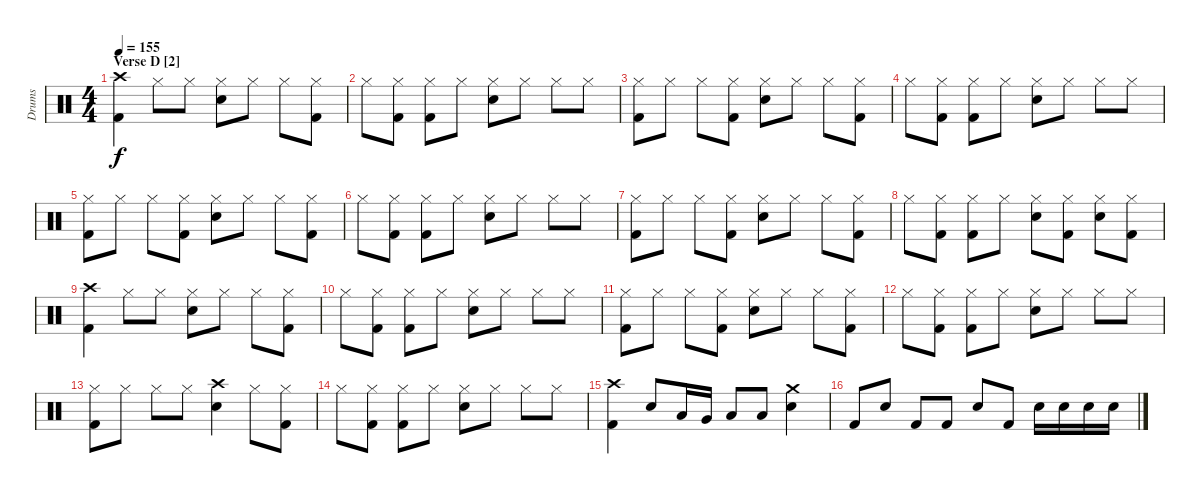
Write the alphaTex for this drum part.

\track ("Drums" "Drums") {instrument percussion}
\staff {score}
\articulation defaults
\ts (4 4)
\section ("" "Verse D [2]")
\tempo 155
\clef neutral
\ks c
("Crash high (hit)" "Kick (hit) 2").4{dy f} "Hi-Hat (closed)".8 "Hi-Hat (closed)".8 ("Hi-Hat (closed)" "Electric Snare (hit)").8 "Hi-Hat (closed)".8 "Hi-Hat (closed)".8 ("Hi-Hat (closed)" "Kick (hit) 2").8 |
"Hi-Hat (closed)".8 ("Hi-Hat (closed)" "Kick (hit) 2").8 ("Hi-Hat (closed)" "Kick (hit) 2").8 "Hi-Hat (closed)".8 ("Hi-Hat (closed)" "Electric Snare (hit)").8 "Hi-Hat (closed)".8 "Hi-Hat (closed)".8 "Hi-Hat (closed)".8 |
("Hi-Hat (closed)" "Kick (hit) 2").8 "Hi-Hat (closed)".8 "Hi-Hat (closed)".8 ("Hi-Hat (closed)" "Kick (hit) 2").8 ("Hi-Hat (closed)" "Electric Snare (hit)").8 "Hi-Hat (closed)".8 "Hi-Hat (closed)".8 ("Hi-Hat (closed)" "Kick (hit) 2").8 |
"Hi-Hat (closed)".8 ("Hi-Hat (closed)" "Kick (hit) 2").8 ("Hi-Hat (closed)" "Kick (hit) 2").8 "Hi-Hat (closed)".8 ("Hi-Hat (closed)" "Electric Snare (hit)").8 "Hi-Hat (closed)".8 "Hi-Hat (closed)".8 "Hi-Hat (closed)".8 |
("Hi-Hat (closed)" "Kick (hit) 2").8 "Hi-Hat (closed)".8 "Hi-Hat (closed)".8 ("Hi-Hat (closed)" "Kick (hit) 2").8 ("Hi-Hat (closed)" "Electric Snare (hit)").8 "Hi-Hat (closed)".8 "Hi-Hat (closed)".8 ("Hi-Hat (closed)" "Kick (hit) 2").8 |
"Hi-Hat (closed)".8 ("Hi-Hat (closed)" "Kick (hit) 2").8 ("Hi-Hat (closed)" "Kick (hit) 2").8 "Hi-Hat (closed)".8 ("Hi-Hat (closed)" "Electric Snare (hit)").8 "Hi-Hat (closed)".8 "Hi-Hat (closed)".8 "Hi-Hat (closed)".8 |
("Hi-Hat (closed)" "Kick (hit) 2").8 "Hi-Hat (closed)".8 "Hi-Hat (closed)".8 ("Hi-Hat (closed)" "Kick (hit) 2").8 ("Hi-Hat (closed)" "Electric Snare (hit)").8 "Hi-Hat (closed)".8 "Hi-Hat (closed)".8 ("Hi-Hat (closed)" "Kick (hit) 2").8 |
"Hi-Hat (closed)".8 ("Hi-Hat (closed)" "Kick (hit) 2").8 ("Hi-Hat (closed)" "Kick (hit) 2").8 "Hi-Hat (closed)".8 ("Hi-Hat (closed)" "Electric Snare (hit)").8 ("Hi-Hat (closed)" "Kick (hit) 2").8 ("Hi-Hat (closed)" "Electric Snare (hit)").8 ("Hi-Hat (closed)" "Kick (hit) 2").8 |
("Crash high (hit)" "Kick (hit) 2").4 "Hi-Hat (closed)".8 "Hi-Hat (closed)".8 ("Hi-Hat (closed)" "Electric Snare (hit)").8 "Hi-Hat (closed)".8 "Hi-Hat (closed)".8 ("Hi-Hat (closed)" "Kick (hit) 2").8 |
"Hi-Hat (closed)".8 ("Hi-Hat (closed)" "Kick (hit) 2").8 ("Hi-Hat (closed)" "Kick (hit) 2").8 "Hi-Hat (closed)".8 ("Hi-Hat (closed)" "Electric Snare (hit)").8 "Hi-Hat (closed)".8 "Hi-Hat (closed)".8 "Hi-Hat (closed)".8 |
("Hi-Hat (closed)" "Kick (hit) 2").8 "Hi-Hat (closed)".8 "Hi-Hat (closed)".8 ("Hi-Hat (closed)" "Kick (hit) 2").8 ("Hi-Hat (closed)" "Electric Snare (hit)").8 "Hi-Hat (closed)".8 "Hi-Hat (closed)".8 ("Hi-Hat (closed)" "Kick (hit) 2").8 |
"Hi-Hat (closed)".8 ("Hi-Hat (closed)" "Kick (hit) 2").8 ("Hi-Hat (closed)" "Kick (hit) 2").8 "Hi-Hat (closed)".8 ("Hi-Hat (closed)" "Electric Snare (hit)").8 "Hi-Hat (closed)".8 "Hi-Hat (closed)".8 "Hi-Hat (closed)".8 |
("Hi-Hat (closed)" "Kick (hit) 2").8 "Hi-Hat (closed)".8 "Hi-Hat (closed)".8 "Hi-Hat (closed)".8 ("Crash high (hit)" "Electric Snare (hit)").4 "Hi-Hat (closed)".8 ("Hi-Hat (closed)" "Kick (hit) 2").8 |
"Hi-Hat (closed)".8 ("Hi-Hat (closed)" "Kick (hit) 2").8 ("Hi-Hat (closed)" "Kick (hit) 2").8 "Hi-Hat (closed)".8 ("Hi-Hat (closed)" "Electric Snare (hit)").8 "Hi-Hat (closed)".8 "Hi-Hat (closed)".8 "Hi-Hat (closed)".8 |
("Crash high (hit)" "Kick (hit) 2").4 "Electric Snare (hit)".8 "Low Tom (hit)".16 "Very Low Tom (hit)".16 "Low Floor Tom (hit)".8 "Low Floor Tom (hit)".8 ("Crash medium (hit)" "Electric Snare (hit)").4 |
"Kick (hit) 2".8 "Electric Snare (hit)".8 "Kick (hit) 2".8 "Kick (hit) 2".8 "Electric Snare (hit)".8 "Kick (hit) 2".8 "Electric Snare (hit)".16 "Electric Snare (hit)".16 "Electric Snare (hit)".16 "Electric Snare (hit)".16
